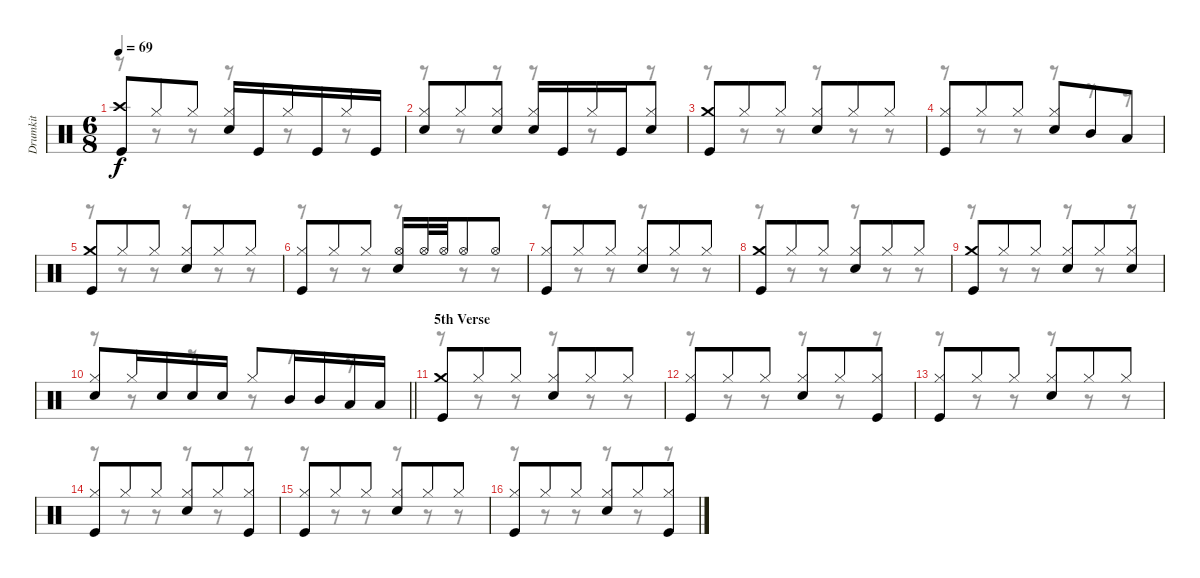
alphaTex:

\track ("Drumkit" "Drumkit") {instrument percussion}
\staff {score}
\articulation defaults
\voice
\ts (6 8)
\tempo 69
\clef neutral
\ks c
("Crash high (hit)" "Kick (hit)").8{dy f} "Hi-Hat (closed)".8 "Hi-Hat (closed)".8 ("Hi-Hat (closed)" "Snare (hit) 2").16 "Kick (hit)".16 "Hi-Hat (closed)".16 "Kick (hit)".16 "Hi-Hat (closed)".16 "Kick (hit)".16 |
("Hi-Hat (closed)" "Snare (hit) 2").8 "Hi-Hat (closed)".8 ("Hi-Hat (closed)" "Snare (hit) 2").8 ("Hi-Hat (closed)" "Snare (hit) 2").16 "Kick (hit)".16 "Hi-Hat (closed)".16 "Kick (hit)".16 ("Hi-Hat (closed)" "Snare (hit) 2").8 |
("Crash medium (hit)" "Kick (hit)").8 "Hi-Hat (closed)".8 "Hi-Hat (closed)".8 ("Hi-Hat (closed)" "Snare (hit) 2").8 "Hi-Hat (closed)".8 "Hi-Hat (closed)".8 |
("Hi-Hat (closed)" "Kick (hit)").8 "Hi-Hat (closed)".8 "Hi-Hat (closed)".8 ("Hi-Hat (closed)" "Snare (hit) 2").8 "Mid Tom (hit)".8 "Low Tom (hit)".8 |
("Crash medium (hit)" "Kick (hit)").8 "Hi-Hat (closed)".8 "Hi-Hat (closed)".8 ("Hi-Hat (closed)" "Snare (hit) 2").8 "Hi-Hat (closed)".8 "Hi-Hat (closed)".8 |
("Hi-Hat (closed)" "Kick (hit)").8 "Hi-Hat (closed)".8 "Hi-Hat (closed)".8 ("Hi-Hat (open)" "Snare (hit) 2").16 "Hi-Hat (open)".32 "Hi-Hat (open)".32 "Hi-Hat (open)".8 "Hi-Hat (open)".8 |
("Hi-Hat (closed)" "Kick (hit)").8 "Hi-Hat (closed)".8 "Hi-Hat (closed)".8 ("Hi-Hat (closed)" "Snare (hit) 2").8 "Hi-Hat (closed)".8 "Hi-Hat (closed)".8 |
("Crash medium (hit)" "Kick (hit)").8 "Hi-Hat (closed)".8 "Hi-Hat (closed)".8 ("Hi-Hat (closed)" "Snare (hit) 2").8 "Hi-Hat (closed)".8 "Hi-Hat (closed)".8 |
("Crash medium (hit)" "Kick (hit)").8 "Hi-Hat (closed)".8 "Hi-Hat (closed)".8 ("Hi-Hat (closed)" "Snare (hit) 2").8 "Hi-Hat (closed)".8 ("Hi-Hat (closed)" "Snare (hit) 2").8 |
\barLineRight lightlight
("Hi-Hat (closed)" "Snare (hit) 2").8 "Hi-Hat (closed)".16 "Snare (hit) 2".16 "Snare (hit) 2".16 "Snare (hit) 2".16 "Hi-Hat (closed)".8 "Mid Tom (hit)".16 "Mid Tom (hit)".16 "Low Tom (hit)".16 "Low Tom (hit)".16 |
\section ("" "5th Verse")
("Crash medium (hit)" "Kick (hit)").8 "Hi-Hat (closed)".8 "Hi-Hat (closed)".8 ("Hi-Hat (closed)" "Snare (hit) 2").8 "Hi-Hat (closed)".8 "Hi-Hat (closed)".8 |
("Hi-Hat (closed)" "Kick (hit)").8 "Hi-Hat (closed)".8 "Hi-Hat (closed)".8 ("Hi-Hat (closed)" "Snare (hit) 2").8 "Hi-Hat (closed)".8 ("Hi-Hat (closed)" "Kick (hit)").8 |
("Hi-Hat (closed)" "Kick (hit)").8 "Hi-Hat (closed)".8 "Hi-Hat (closed)".8 ("Hi-Hat (closed)" "Snare (hit) 2").8 "Hi-Hat (closed)".8 "Hi-Hat (closed)".8 |
("Hi-Hat (closed)" "Kick (hit)").8 "Hi-Hat (closed)".8 "Hi-Hat (closed)".8 ("Hi-Hat (closed)" "Snare (hit) 2").8 "Hi-Hat (closed)".8 ("Hi-Hat (closed)" "Kick (hit)").8 |
("Hi-Hat (closed)" "Kick (hit)").8 "Hi-Hat (closed)".8 "Hi-Hat (closed)".8 ("Hi-Hat (closed)" "Snare (hit) 2").8 "Hi-Hat (closed)".8 "Hi-Hat (closed)".8 |
("Hi-Hat (closed)" "Kick (hit)").8 "Hi-Hat (closed)".8 "Hi-Hat (closed)".8 ("Hi-Hat (closed)" "Snare (hit) 2").8 "Hi-Hat (closed)".8 ("Hi-Hat (closed)" "Kick (hit)").8
\voice
\clef neutral
\ottava regular
\simile none
\ks c
r.8{dy f} r.8 r.8 r.8 r.8 r.8 |
r.8 r.8 r.8 r.8 r.8 r.8 |
r.8 r.8 r.8 r.8 r.8 r.8 |
r.8 r.8 r.8 r.8 r.8 r.8 |
r.8 r.8 r.8 r.8 r.8 r.8 |
r.8 r.8 r.8 r.8 r.8 r.8 |
r.8 r.8 r.8 r.8 r.8 r.8 |
r.8 r.8 r.8 r.8 r.8 r.8 |
r.8 r.8 r.8 r.8 r.8 r.8 |
\barLineRight lightlight
r.8 r.8 r.8 r.8 r.8 r.8 |
r.8 r.8 r.8 r.8 r.8 r.8 |
r.8 r.8 r.8 r.8 r.8 r.8 |
r.8 r.8 r.8 r.8 r.8 r.8 |
r.8 r.8 r.8 r.8 r.8 r.8 |
r.8 r.8 r.8 r.8 r.8 r.8 |
r.8 r.8 r.8 r.8 r.8 r.8
